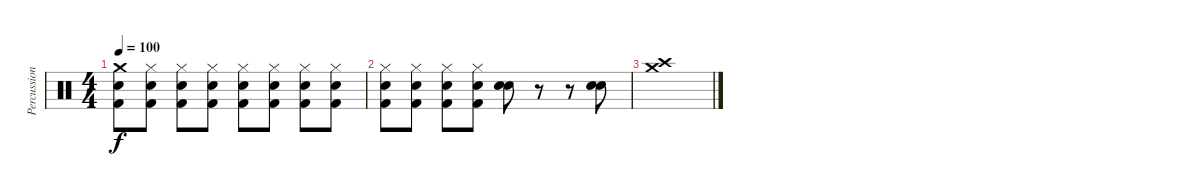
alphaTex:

\track ("Percussion" "Percussion") {instrument percussion}
\staff {score}
\articulation defaults
\ts (4 4)
\tempo 100
\clef neutral
\ks c
("Electric Snare (hit)" "Crash medium (hit)" "Kick (hit) 2").8{dy f} ("Hi-Hat (closed)" "Electric Snare (hit)" "Kick (hit) 2").8 ("Hi-Hat (closed)" "Electric Snare (hit)" "Kick (hit) 2").8 ("Hi-Hat (closed)" "Electric Snare (hit)" "Kick (hit) 2").8 ("Hi-Hat (closed)" "Electric Snare (hit)" "Kick (hit) 2").8 ("Hi-Hat (closed)" "Electric Snare (hit)" "Kick (hit) 2").8 ("Hi-Hat (closed)" "Electric Snare (hit)" "Kick (hit) 2").8 ("Hi-Hat (closed)" "Electric Snare (hit)" "Kick (hit) 2").8 |
("Hi-Hat (closed)" "Electric Snare (hit)" "Kick (hit) 2").8 ("Hi-Hat (closed)" "Electric Snare (hit)" "Kick (hit) 2").8 ("Hi-Hat (closed)" "Electric Snare (hit)" "Kick (hit) 2").8 ("Hi-Hat (closed)" "Electric Snare (hit)" "Kick (hit) 2").8 ("Electric Snare (hit)" "Electric Snare (hit)").8 r.8 r.8 ("Electric Snare (hit)" "Electric Snare (hit)").8 |
("Crash medium (hit)" "Crash high (hit)").1
